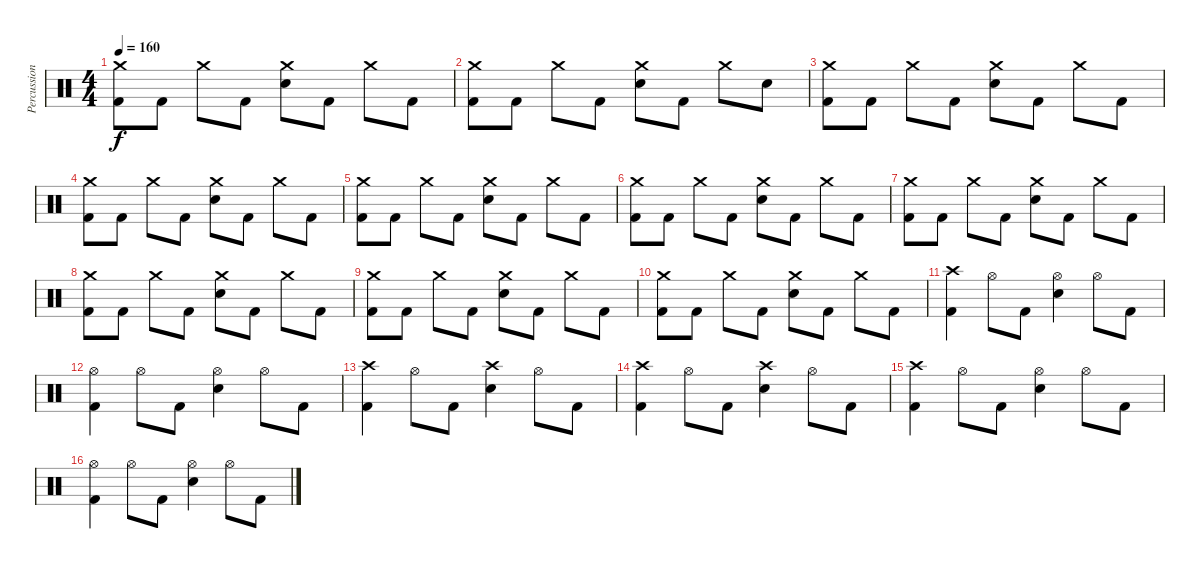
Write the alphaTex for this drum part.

\track ("Percussion" "Percussion") {instrument percussion}
\staff {score}
\articulation defaults
\ts (4 4)
\tempo 160
\clef neutral
\ks c
("Crash medium (hit)" "Kick (hit) 2").8{dy f} "Kick (hit) 2".8 "Crash medium (hit)".8 "Kick (hit) 2".8 ("Crash medium (hit)" "Electric Snare (hit)").8 "Kick (hit) 2".8 "Crash medium (hit)".8 "Kick (hit) 2".8 |
("Crash medium (hit)" "Kick (hit) 2").8 "Kick (hit) 2".8 "Crash medium (hit)".8 "Kick (hit) 2".8 ("Crash medium (hit)" "Electric Snare (hit)").8 "Kick (hit) 2".8 "Crash medium (hit)".8 "Electric Snare (hit)".8 |
("Crash medium (hit)" "Kick (hit) 2").8 "Kick (hit) 2".8 "Crash medium (hit)".8 "Kick (hit) 2".8 ("Crash medium (hit)" "Electric Snare (hit)").8 "Kick (hit) 2".8 "Crash medium (hit)".8 "Kick (hit) 2".8 |
("Crash medium (hit)" "Kick (hit) 2").8 "Kick (hit) 2".8 "Crash medium (hit)".8 "Kick (hit) 2".8 ("Crash medium (hit)" "Electric Snare (hit)").8 "Kick (hit) 2".8 "Crash medium (hit)".8 "Kick (hit) 2".8 |
("Crash medium (hit)" "Kick (hit) 2").8 "Kick (hit) 2".8 "Crash medium (hit)".8 "Kick (hit) 2".8 ("Crash medium (hit)" "Electric Snare (hit)").8 "Kick (hit) 2".8 "Crash medium (hit)".8 "Kick (hit) 2".8 |
("Crash medium (hit)" "Kick (hit) 2").8 "Kick (hit) 2".8 "Crash medium (hit)".8 "Kick (hit) 2".8 ("Crash medium (hit)" "Electric Snare (hit)").8 "Kick (hit) 2".8 "Crash medium (hit)".8 "Kick (hit) 2".8 |
("Crash medium (hit)" "Kick (hit) 2").8 "Kick (hit) 2".8 "Crash medium (hit)".8 "Kick (hit) 2".8 ("Crash medium (hit)" "Electric Snare (hit)").8 "Kick (hit) 2".8 "Crash medium (hit)".8 "Kick (hit) 2".8 |
("Crash medium (hit)" "Kick (hit) 2").8 "Kick (hit) 2".8 "Crash medium (hit)".8 "Kick (hit) 2".8 ("Crash medium (hit)" "Electric Snare (hit)").8 "Kick (hit) 2".8 "Crash medium (hit)".8 "Kick (hit) 2".8 |
("Crash medium (hit)" "Kick (hit) 2").8 "Kick (hit) 2".8 "Crash medium (hit)".8 "Kick (hit) 2".8 ("Crash medium (hit)" "Electric Snare (hit)").8 "Kick (hit) 2".8 "Crash medium (hit)".8 "Kick (hit) 2".8 |
("Crash medium (hit)" "Kick (hit) 2").8 "Kick (hit) 2".8 "Crash medium (hit)".8 "Kick (hit) 2".8 ("Crash medium (hit)" "Electric Snare (hit)").8 "Kick (hit) 2".8 "Crash medium (hit)".8 "Kick (hit) 2".8 |
("Crash high (hit)" "Kick (hit) 2").4 "Hi-Hat (open)".8 "Kick (hit) 2".8 ("Hi-Hat (open)" "Electric Snare (hit)").4 "Hi-Hat (open)".8 "Kick (hit) 2".8 |
("Hi-Hat (open)" "Kick (hit) 2").4 "Hi-Hat (open)".8 "Kick (hit) 2".8 ("Hi-Hat (open)" "Electric Snare (hit)").4 "Hi-Hat (open)".8 "Kick (hit) 2".8 |
("Crash high (hit)" "Kick (hit) 2").4 "Hi-Hat (open)".8 "Kick (hit) 2".8 ("Crash high (hit)" "Electric Snare (hit)").4 "Hi-Hat (open)".8 "Kick (hit) 2".8 |
("Crash high (hit)" "Kick (hit) 2").4 "Hi-Hat (open)".8 "Kick (hit) 2".8 ("Crash high (hit)" "Electric Snare (hit)").4 "Hi-Hat (open)".8 "Kick (hit) 2".8 |
("Crash high (hit)" "Kick (hit) 2").4 "Hi-Hat (open)".8 "Kick (hit) 2".8 ("Hi-Hat (open)" "Electric Snare (hit)").4 "Hi-Hat (open)".8 "Kick (hit) 2".8 |
("Hi-Hat (open)" "Kick (hit) 2").4 "Hi-Hat (open)".8 "Kick (hit) 2".8 ("Hi-Hat (open)" "Electric Snare (hit)").4 "Hi-Hat (open)".8 "Kick (hit) 2".8
